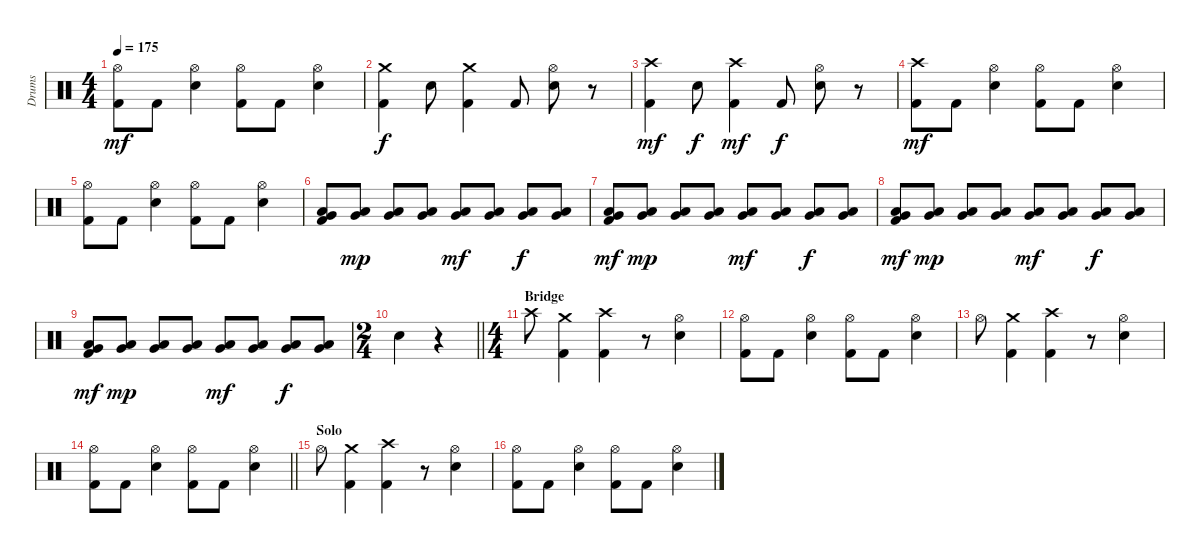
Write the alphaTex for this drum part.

\track ("Drums" "Drums") {instrument percussion}
\staff {score}
\articulation defaults
\ts (4 4)
\tempo 175
\clef neutral
\ks c
("Hi-Hat (open)" "Kick (hit) 2").8{dy mf} "Kick (hit) 2".8 ("Hi-Hat (open)" "Electric Snare (hit)").4 ("Hi-Hat (open)" "Kick (hit) 2").8 "Kick (hit) 2".8 ("Hi-Hat (open)" "Electric Snare (hit)").4 |
("Crash medium (hit)" "Kick (hit) 2").4{dy f} "Electric Snare (hit)".8 ("Crash medium (hit)" "Kick (hit) 2").4 "Kick (hit) 2".8 ("Hi-Hat (open)" "Electric Snare (hit)").8 r.8 |
("Crash high (hit)" "Kick (hit) 2").4{dy mf} "Electric Snare (hit)".8{dy f} ("Crash high (hit)" "Kick (hit) 2").4{dy mf} "Kick (hit) 2".8{dy f} ("Hi-Hat (open)" "Electric Snare (hit)").8 r.8 |
("Crash high (hit)" "Kick (hit) 2").8{dy mf} "Kick (hit) 2".8 ("Hi-Hat (open)" "Electric Snare (hit)").4 ("Hi-Hat (open)" "Kick (hit) 2").8 "Kick (hit) 2".8 ("Hi-Hat (open)" "Electric Snare (hit)").4 |
("Hi-Hat (open)" "Kick (hit) 2").8 "Kick (hit) 2".8 ("Hi-Hat (open)" "Electric Snare (hit)").4 ("Hi-Hat (open)" "Kick (hit) 2").8 "Kick (hit) 2".8 ("Hi-Hat (open)" "Electric Snare (hit)").4 |
("Low Tom (hit)" "Very Low Tom (hit)" "Kick (hit) 2").8 ("Low Tom (hit)" "Very Low Tom (hit)").8{dy mp} ("Low Tom (hit)" "Very Low Tom (hit)").8 ("Low Tom (hit)" "Very Low Tom (hit)").8 ("Low Tom (hit)" "Very Low Tom (hit)").8{dy mf} ("Low Tom (hit)" "Very Low Tom (hit)").8 ("Low Tom (hit)" "Very Low Tom (hit)").8{dy f} ("Low Tom (hit)" "Very Low Tom (hit)").8 |
("Low Tom (hit)" "Very Low Tom (hit)" "Kick (hit) 2").8{dy mf} ("Low Tom (hit)" "Very Low Tom (hit)").8{dy mp} ("Low Tom (hit)" "Very Low Tom (hit)").8 ("Low Tom (hit)" "Very Low Tom (hit)").8 ("Low Tom (hit)" "Very Low Tom (hit)").8{dy mf} ("Low Tom (hit)" "Very Low Tom (hit)").8 ("Low Tom (hit)" "Very Low Tom (hit)").8{dy f} ("Low Tom (hit)" "Very Low Tom (hit)").8 |
("Low Tom (hit)" "Very Low Tom (hit)" "Kick (hit) 2").8{dy mf} ("Low Tom (hit)" "Very Low Tom (hit)").8{dy mp} ("Low Tom (hit)" "Very Low Tom (hit)").8 ("Low Tom (hit)" "Very Low Tom (hit)").8 ("Low Tom (hit)" "Very Low Tom (hit)").8{dy mf} ("Low Tom (hit)" "Very Low Tom (hit)").8 ("Low Tom (hit)" "Very Low Tom (hit)").8{dy f} ("Low Tom (hit)" "Very Low Tom (hit)").8 |
("Low Tom (hit)" "Very Low Tom (hit)" "Kick (hit) 2").8{dy mf} ("Low Tom (hit)" "Very Low Tom (hit)").8{dy mp} ("Low Tom (hit)" "Very Low Tom (hit)").8 ("Low Tom (hit)" "Very Low Tom (hit)").8 ("Low Tom (hit)" "Very Low Tom (hit)").8{dy mf} ("Low Tom (hit)" "Very Low Tom (hit)").8 ("Low Tom (hit)" "Very Low Tom (hit)").8{dy f} ("Low Tom (hit)" "Very Low Tom (hit)").8 |
\ts (2 4)
\barLineRight lightlight "Electric Snare (hit)".4
r.4 |
\ts (4 4)
\section ("" "Bridge")
"Crash high (hit)".8 ("Crash medium (hit)" "Kick (hit) 2").4 ("Crash high (hit)" "Kick (hit) 2").4 r.8 ("Hi-Hat (open)" "Electric Snare (hit)").4 |
("Hi-Hat (open)" "Kick (hit) 2").8 "Kick (hit) 2".8 ("Hi-Hat (open)" "Electric Snare (hit)").4 ("Hi-Hat (open)" "Kick (hit) 2").8 "Kick (hit) 2".8 ("Hi-Hat (open)" "Electric Snare (hit)").4 |
"Hi-Hat (open)".8 ("Crash medium (hit)" "Kick (hit) 2").4 ("Crash high (hit)" "Kick (hit) 2").4 r.8 ("Hi-Hat (open)" "Electric Snare (hit)").4 |
\barLineRight lightlight
("Hi-Hat (open)" "Kick (hit) 2").8 "Kick (hit) 2".8 ("Hi-Hat (open)" "Electric Snare (hit)").4 ("Hi-Hat (open)" "Kick (hit) 2").8 "Kick (hit) 2".8 ("Hi-Hat (open)" "Electric Snare (hit)").4 |
\section ("" "Solo")
"Hi-Hat (open)".8 ("Crash medium (hit)" "Kick (hit) 2").4 ("Crash high (hit)" "Kick (hit) 2").4 r.8 ("Hi-Hat (open)" "Electric Snare (hit)").4 |
("Hi-Hat (open)" "Kick (hit) 2").8 "Kick (hit) 2".8 ("Hi-Hat (open)" "Electric Snare (hit)").4 ("Hi-Hat (open)" "Kick (hit) 2").8 "Kick (hit) 2".8 ("Hi-Hat (open)" "Electric Snare (hit)").4
